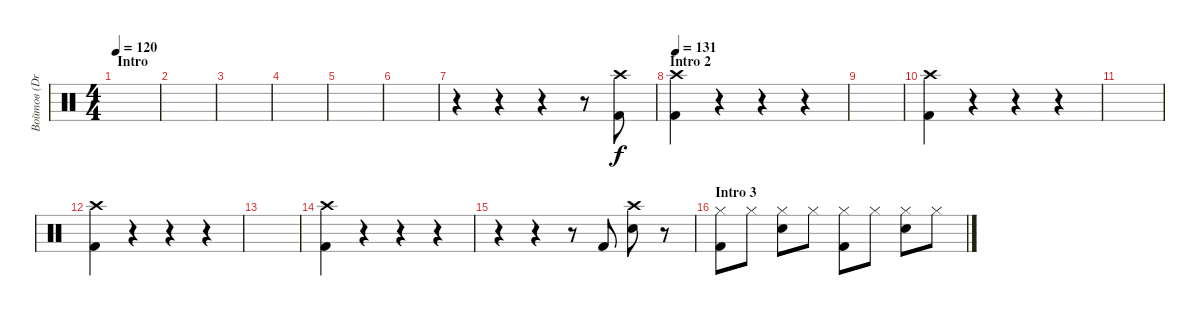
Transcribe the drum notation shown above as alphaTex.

\track ("Войтов (Drums)" "Войтов (Dr") {instrument percussion}
\staff {score}
\articulation defaults
\ts (4 4)
\section ("" "Intro")
\tempo 120
\clef neutral
\ks c
|
|
|
|
|
|
r.4 r.4 r.4 r.8 ("Kick (hit) 2" "Crash high (hit)").8 |
\section ("" "Intro 2")
\tempo 131
("Kick (hit) 2" "Crash high (hit)").4 r.4 r.4 r.4 |
|
("Kick (hit) 2" "Crash high (hit)").4 r.4 r.4 r.4 |
|
("Kick (hit) 2" "Crash high (hit)").4 r.4 r.4 r.4 |
|
("Kick (hit) 2" "Crash high (hit)").4 r.4 r.4 r.4 |
r.4 r.4 r.8 "Kick (hit) 2".8 ("Crash high (hit)" "Electric Snare (hit)").8 r.8 |
\section ("" "Intro 3")
("Kick (hit) 2" "Hi-Hat (closed)").8 "Hi-Hat (closed)".8 ("Electric Snare (hit)" "Hi-Hat (closed)").8 "Hi-Hat (closed)".8 ("Kick (hit) 2" "Hi-Hat (closed)").8 "Hi-Hat (closed)".8 ("Electric Snare (hit)" "Hi-Hat (closed)").8 "Hi-Hat (closed)".8
